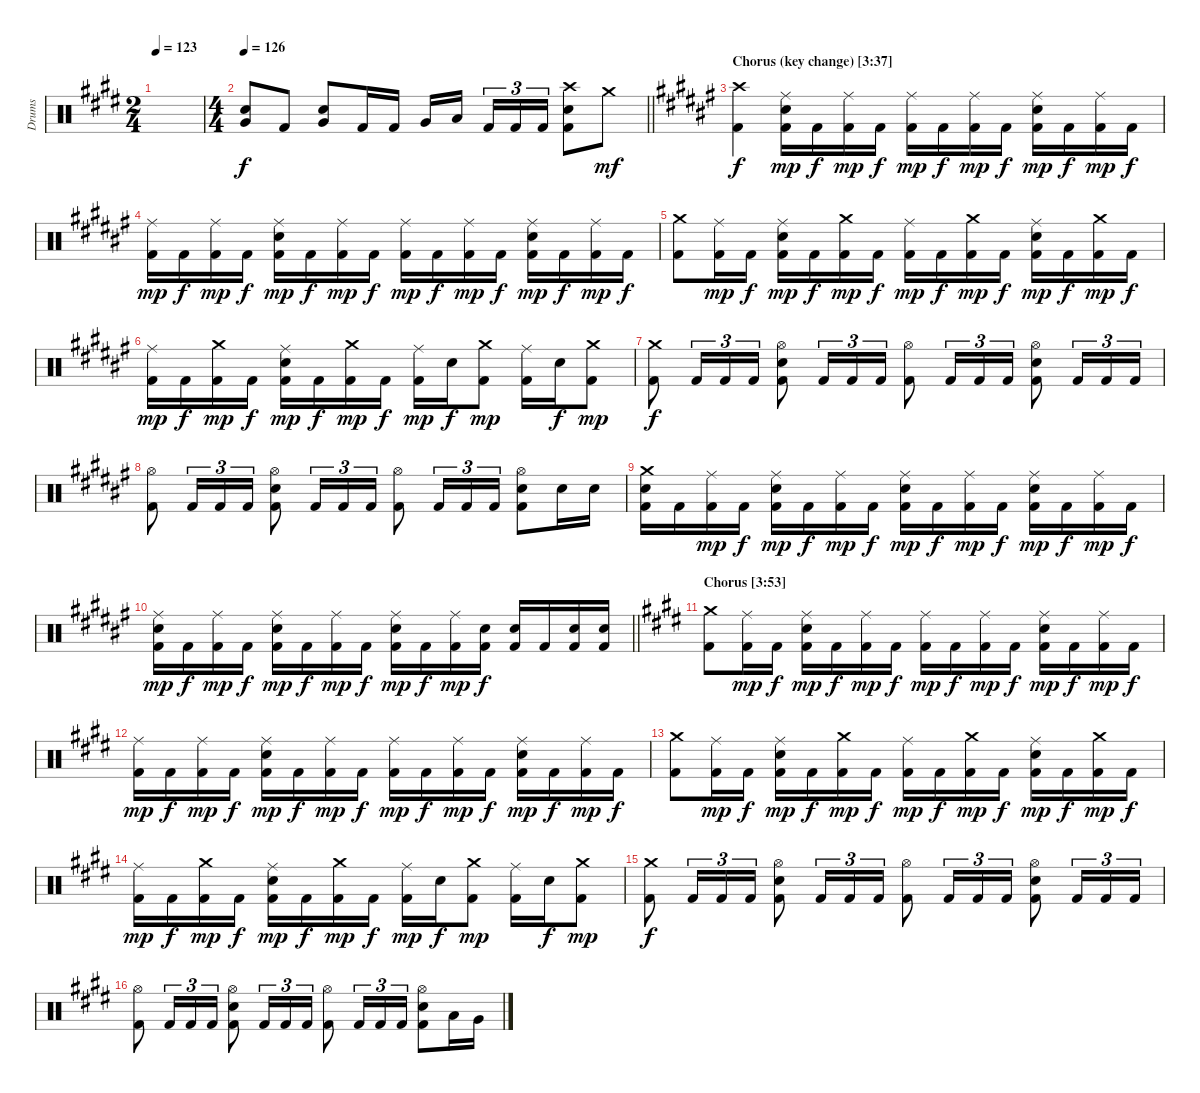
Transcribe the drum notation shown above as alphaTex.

\track ("Drums" "Drums") {instrument percussion}
\staff {score}
\articulation defaults
\ts (2 4)
\tempo 123
\clef neutral
\ks c#minor
|
\ts (4 4)
\tempo 126
\barLineRight lightlight
("Very Low Tom (hit)" "Snare (hit) 2").8 "Kick (hit) 2".8 ("Very Low Tom (hit)" "Snare (hit) 2").8 "Kick (hit) 2".16 "Kick (hit) 2".16 "Very Low Tom (hit)".16 "Low Floor Tom (hit)".16{beam splitsecondary} "Kick (hit) 2".16{tu (3 2)} "Kick (hit) 2".16{tu (3 2)} "Kick (hit) 2".16{tu (3 2)} ("Crash high (hit)" "Snare (hit) 2" "Kick (hit) 2").8 "Crash medium (hit)".8{dy mf} |
\section ("" "Chorus (key change) [3:37]")
\ks d#minor
("Crash high (hit)" "Kick (hit) 2").4{dy f} ("Ride (middle)" "Snare (hit) 2" "Kick (hit) 2").16{dy mp} "Kick (hit) 2".16{dy f} ("Ride (middle)" "Kick (hit) 2").16{dy mp} "Kick (hit) 2".16{dy f} ("Ride (middle)" "Kick (hit) 2").16{dy mp} "Kick (hit) 2".16{dy f} ("Ride (middle)" "Kick (hit) 2").16{dy mp} "Kick (hit) 2".16{dy f} ("Ride (middle)" "Snare (hit) 2" "Kick (hit) 2").16{dy mp} "Kick (hit) 2".16{dy f} ("Ride (middle)" "Kick (hit) 2").16{dy mp} "Kick (hit) 2".16{dy f} |
("Ride (middle)" "Kick (hit) 2").16{dy mp} "Kick (hit) 2".16{dy f} ("Ride (middle)" "Kick (hit) 2").16{dy mp} "Kick (hit) 2".16{dy f} ("Ride (middle)" "Snare (hit) 2" "Kick (hit) 2").16{dy mp} "Kick (hit) 2".16{dy f} ("Ride (middle)" "Kick (hit) 2").16{dy mp} "Kick (hit) 2".16{dy f} ("Ride (middle)" "Kick (hit) 2").16{dy mp} "Kick (hit) 2".16{dy f} ("Ride (middle)" "Kick (hit) 2").16{dy mp} "Kick (hit) 2".16{dy f} ("Ride (middle)" "Snare (hit) 2" "Kick (hit) 2").16{dy mp} "Kick (hit) 2".16{dy f} ("Ride (middle)" "Kick (hit) 2").16{dy mp} "Kick (hit) 2".16{dy f} |
("Crash medium (hit)" "Kick (hit) 2").8 ("Ride (middle)" "Kick (hit) 2").16{dy mp} "Kick (hit) 2".16{dy f} ("Ride (middle)" "Snare (hit) 2" "Kick (hit) 2").16{dy mp} "Kick (hit) 2".16{dy f} ("Crash medium (hit)" "Kick (hit) 2").16{dy mp} "Kick (hit) 2".16{dy f} ("Ride (middle)" "Kick (hit) 2").16{dy mp} "Kick (hit) 2".16{dy f} ("Crash medium (hit)" "Kick (hit) 2").16{dy mp} "Kick (hit) 2".16{dy f} ("Ride (middle)" "Snare (hit) 2" "Kick (hit) 2").16{dy mp} "Kick (hit) 2".16{dy f} ("Crash medium (hit)" "Kick (hit) 2").16{dy mp} "Kick (hit) 2".16{dy f} |
("Ride (middle)" "Kick (hit) 2").16{dy mp} "Kick (hit) 2".16{dy f} ("Crash medium (hit)" "Kick (hit) 2").16{dy mp} "Kick (hit) 2".16{dy f} ("Ride (middle)" "Snare (hit) 2" "Kick (hit) 2").16{dy mp} "Kick (hit) 2".16{dy f} ("Crash medium (hit)" "Kick (hit) 2").16{dy mp} "Kick (hit) 2".16{dy f} ("Ride (middle)" "Kick (hit) 2").16{dy mp} "Snare (hit) 2".16{dy f} ("Crash medium (hit)" "Kick (hit) 2").8{dy mp} ("Ride (middle)" "Kick (hit) 2").16 "Snare (hit) 2".16{dy f} ("Crash medium (hit)" "Kick (hit) 2").8{dy mp} |
("Crash medium (hit)" "Kick (hit) 2").8{dy f} "Kick (hit) 2".16{tu (3 2)} "Kick (hit) 2".16{tu (3 2)} "Kick (hit) 2".16{tu (3 2)} ("Hi-Hat (open)" "Snare (hit) 2" "Kick (hit) 2").8 "Kick (hit) 2".16{tu (3 2)} "Kick (hit) 2".16{tu (3 2)} "Kick (hit) 2".16{tu (3 2)} ("Hi-Hat (open)" "Kick (hit) 2").8 "Kick (hit) 2".16{tu (3 2)} "Kick (hit) 2".16{tu (3 2)} "Kick (hit) 2".16{tu (3 2)} ("Hi-Hat (open)" "Snare (hit) 2" "Kick (hit) 2").8 "Kick (hit) 2".16{tu (3 2)} "Kick (hit) 2".16{tu (3 2)} "Kick (hit) 2".16{tu (3 2)} |
("Hi-Hat (open)" "Kick (hit) 2").8 "Kick (hit) 2".16{tu (3 2)} "Kick (hit) 2".16{tu (3 2)} "Kick (hit) 2".16{tu (3 2)} ("Hi-Hat (open)" "Snare (hit) 2" "Kick (hit) 2").8 "Kick (hit) 2".16{tu (3 2)} "Kick (hit) 2".16{tu (3 2)} "Kick (hit) 2".16{tu (3 2)} ("Hi-Hat (open)" "Kick (hit) 2").8 "Kick (hit) 2".16{tu (3 2)} "Kick (hit) 2".16{tu (3 2)} "Kick (hit) 2".16{tu (3 2)} ("Hi-Hat (open)" "Snare (hit) 2" "Kick (hit) 2").8 "Snare (hit) 2".16 "Snare (hit) 2".16 |
("Crash medium (hit)" "Snare (hit) 2" "Kick (hit) 2").16 "Kick (hit) 2".16 ("Ride (middle)" "Kick (hit) 2").16{dy mp} "Kick (hit) 2".16{dy f} ("Ride (middle)" "Snare (hit) 2" "Kick (hit) 2").16{dy mp} "Kick (hit) 2".16{dy f} ("Ride (middle)" "Kick (hit) 2").16{dy mp} "Kick (hit) 2".16{dy f} ("Ride (middle)" "Snare (hit) 2" "Kick (hit) 2").16{dy mp} "Kick (hit) 2".16{dy f} ("Ride (middle)" "Kick (hit) 2").16{dy mp} "Kick (hit) 2".16{dy f} ("Ride (middle)" "Snare (hit) 2" "Kick (hit) 2").16{dy mp} "Kick (hit) 2".16{dy f} ("Ride (middle)" "Kick (hit) 2").16{dy mp} "Kick (hit) 2".16{dy f} |
\barLineRight lightlight
("Ride (middle)" "Snare (hit) 2" "Kick (hit) 2").16{dy mp} "Kick (hit) 2".16{dy f} ("Ride (middle)" "Kick (hit) 2").16{dy mp} "Kick (hit) 2".16{dy f} ("Ride (middle)" "Snare (hit) 2" "Kick (hit) 2").16{dy mp} "Kick (hit) 2".16{dy f} ("Ride (middle)" "Kick (hit) 2").16{dy mp} "Kick (hit) 2".16{dy f} ("Ride (middle)" "Snare (hit) 2" "Kick (hit) 2").16{dy mp} "Kick (hit) 2".16{dy f} ("Ride (middle)" "Kick (hit) 2").16{dy mp} ("Snare (hit) 2" "Kick (hit) 2").16{dy f} ("Snare (hit) 2" "Kick (hit) 2").16 "Kick (hit) 2".16 ("Snare (hit) 2" "Kick (hit) 2").16 ("Snare (hit) 2" "Kick (hit) 2").16 |
\section ("" "Chorus [3:53]")
\ks c#minor
("Crash medium (hit)" "Kick (hit) 2").8 ("Ride (middle)" "Kick (hit) 2").16{dy mp} "Kick (hit) 2".16{dy f} ("Ride (middle)" "Snare (hit) 2" "Kick (hit) 2").16{dy mp} "Kick (hit) 2".16{dy f} ("Ride (middle)" "Kick (hit) 2").16{dy mp} "Kick (hit) 2".16{dy f} ("Ride (middle)" "Kick (hit) 2").16{dy mp} "Kick (hit) 2".16{dy f} ("Ride (middle)" "Kick (hit) 2").16{dy mp} "Kick (hit) 2".16{dy f} ("Ride (middle)" "Snare (hit) 2" "Kick (hit) 2").16{dy mp} "Kick (hit) 2".16{dy f} ("Ride (middle)" "Kick (hit) 2").16{dy mp} "Kick (hit) 2".16{dy f} |
("Ride (middle)" "Kick (hit) 2").16{dy mp} "Kick (hit) 2".16{dy f} ("Ride (middle)" "Kick (hit) 2").16{dy mp} "Kick (hit) 2".16{dy f} ("Ride (middle)" "Snare (hit) 2" "Kick (hit) 2").16{dy mp} "Kick (hit) 2".16{dy f} ("Ride (middle)" "Kick (hit) 2").16{dy mp} "Kick (hit) 2".16{dy f} ("Ride (middle)" "Kick (hit) 2").16{dy mp} "Kick (hit) 2".16{dy f} ("Ride (middle)" "Kick (hit) 2").16{dy mp} "Kick (hit) 2".16{dy f} ("Ride (middle)" "Snare (hit) 2" "Kick (hit) 2").16{dy mp} "Kick (hit) 2".16{dy f} ("Ride (middle)" "Kick (hit) 2").16{dy mp} "Kick (hit) 2".16{dy f} |
("Crash medium (hit)" "Kick (hit) 2").8 ("Ride (middle)" "Kick (hit) 2").16{dy mp} "Kick (hit) 2".16{dy f} ("Ride (middle)" "Snare (hit) 2" "Kick (hit) 2").16{dy mp} "Kick (hit) 2".16{dy f} ("Crash medium (hit)" "Kick (hit) 2").16{dy mp} "Kick (hit) 2".16{dy f} ("Ride (middle)" "Kick (hit) 2").16{dy mp} "Kick (hit) 2".16{dy f} ("Crash medium (hit)" "Kick (hit) 2").16{dy mp} "Kick (hit) 2".16{dy f} ("Ride (middle)" "Snare (hit) 2" "Kick (hit) 2").16{dy mp} "Kick (hit) 2".16{dy f} ("Crash medium (hit)" "Kick (hit) 2").16{dy mp} "Kick (hit) 2".16{dy f} |
("Ride (middle)" "Kick (hit) 2").16{dy mp} "Kick (hit) 2".16{dy f} ("Crash medium (hit)" "Kick (hit) 2").16{dy mp} "Kick (hit) 2".16{dy f} ("Ride (middle)" "Snare (hit) 2" "Kick (hit) 2").16{dy mp} "Kick (hit) 2".16{dy f} ("Crash medium (hit)" "Kick (hit) 2").16{dy mp} "Kick (hit) 2".16{dy f} ("Ride (middle)" "Kick (hit) 2").16{dy mp} "Snare (hit) 2".16{dy f} ("Crash medium (hit)" "Kick (hit) 2").8{dy mp} ("Ride (middle)" "Kick (hit) 2").16 "Snare (hit) 2".16{dy f} ("Crash medium (hit)" "Kick (hit) 2").8{dy mp} |
("Crash medium (hit)" "Kick (hit) 2").8{dy f} "Kick (hit) 2".16{tu (3 2)} "Kick (hit) 2".16{tu (3 2)} "Kick (hit) 2".16{tu (3 2)} ("Hi-Hat (open)" "Snare (hit) 2" "Kick (hit) 2").8 "Kick (hit) 2".16{tu (3 2)} "Kick (hit) 2".16{tu (3 2)} "Kick (hit) 2".16{tu (3 2)} ("Hi-Hat (open)" "Kick (hit) 2").8 "Kick (hit) 2".16{tu (3 2)} "Kick (hit) 2".16{tu (3 2)} "Kick (hit) 2".16{tu (3 2)} ("Hi-Hat (open)" "Snare (hit) 2" "Kick (hit) 2").8 "Kick (hit) 2".16{tu (3 2)} "Kick (hit) 2".16{tu (3 2)} "Kick (hit) 2".16{tu (3 2)} |
("Hi-Hat (open)" "Kick (hit) 2").8 "Kick (hit) 2".16{tu (3 2)} "Kick (hit) 2".16{tu (3 2)} "Kick (hit) 2".16{tu (3 2)} ("Hi-Hat (open)" "Snare (hit) 2" "Kick (hit) 2").8 "Kick (hit) 2".16{tu (3 2)} "Kick (hit) 2".16{tu (3 2)} "Kick (hit) 2".16{tu (3 2)} ("Hi-Hat (open)" "Kick (hit) 2").8 "Kick (hit) 2".16{tu (3 2)} "Kick (hit) 2".16{tu (3 2)} "Kick (hit) 2".16{tu (3 2)} ("Hi-Hat (open)" "Snare (hit) 2" "Kick (hit) 2").8 "Low Tom (hit)".16 "Very Low Tom (hit)".16
